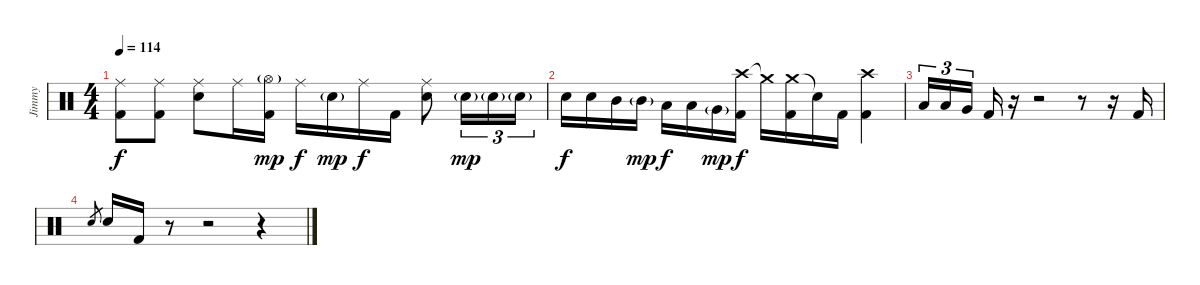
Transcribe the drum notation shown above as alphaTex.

\track ("Jimmy" "Jimmy") {instrument percussion}
\staff {score}
\articulation defaults
\ts (4 4)
\tempo 114
\clef neutral
\ks c
("Ride (middle)" "Kick (hit) 2").8{dy f} ("Ride (middle)" "Kick (hit) 2").8 ("Ride (middle)" "Electric Snare (hit)").8 "Ride (middle)".16 ("Hi-Hat (open)"{g} "Kick (hit) 2").16{dy mp} "Ride (middle)".16{dy f} "Electric Snare (hit)"{g}.16{dy mp} "Ride (middle)".16{dy f} "Kick (hit) 2".16 ("Ride (middle)" "Electric Snare (hit)").8 "Electric Snare (hit)"{g}.16{tu (3 2) dy mp} "Electric Snare (hit)"{g}.16{tu (3 2)} "Electric Snare (hit)"{g}.16{tu (3 2)} |
"Electric Snare (hit)".16{dy f} "Electric Snare (hit)".16 "Mid Tom (hit)".16 "Mid Tom (hit)"{g}.16{dy mp} "Low Tom (hit)".16{dy f} "Low Tom (hit)".16 "Very Low Tom (hit)"{g}.16{dy mp} ("Crash high (hit)" "Kick (hit) 2").16{dy f} "Crash medium (hit)"{t}.16 ("Crash medium (hit)" "Kick (hit) 2").16 "Snare (hit)"{t}.16 "Kick (hit) 2".16 ("Crash high (hit)" "Kick (hit) 2").4 |
"Low Tom (hit)".16{tu (3 2)} "Low Tom (hit)".16{tu (3 2)} "Very Low Tom (hit)".16{tu (3 2)} "Kick (hit) 2".16 r.16 r.2 r.8 r.16 "Kick (hit) 2".16 |
"Electric Snare (hit)".8{gr} "Electric Snare (hit)".16 "Kick (hit) 2".16 r.8 r.2 r.4
